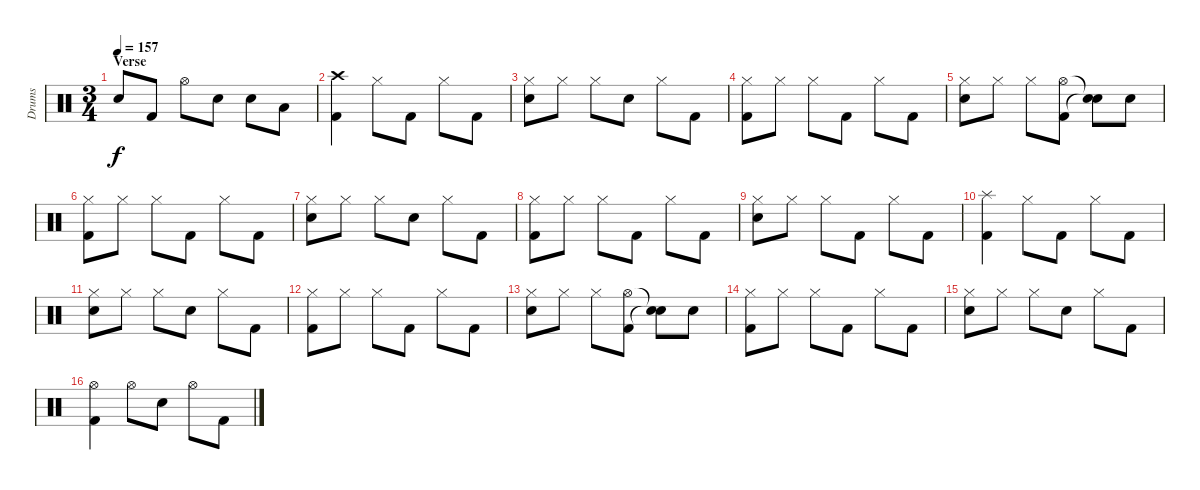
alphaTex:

\track ("Drums" "Drums") {instrument percussion}
\staff {score}
\articulation defaults
\ts (3 4)
\section ("" "Verse")
\tempo 157
\clef neutral
\ks c "Electric Snare (hit)".8{dy f} "Kick (hit) 2".8 "Hi-Hat (open)".8 "Electric Snare (hit)".8 "Electric Snare (hit)".8 "Low Tom (hit)".8
|
("Crash high (hit)" "Kick (hit) 2").4 "Hi-Hat (closed)".8 "Kick (hit) 2".8 "Hi-Hat (closed)".8 "Kick (hit) 2".8 |
("Hi-Hat (closed)" "Electric Snare (hit)").8 "Hi-Hat (closed)".8 "Hi-Hat (closed)".8 "Electric Snare (hit)".8 "Hi-Hat (closed)".8 "Kick (hit) 2".8 |
("Hi-Hat (closed)" "Kick (hit) 2").8 "Hi-Hat (closed)".8 "Hi-Hat (closed)".8 "Kick (hit) 2".8 "Hi-Hat (closed)".8 "Kick (hit) 2".8 |
("Hi-Hat (closed)" "Electric Snare (hit)").8 "Hi-Hat (closed)".8 "Hi-Hat (closed)".8 ("Hi-Hat (open)" "Kick (hit) 2").8 ("Snare (hit)"{t} "Snare (hit)"{t}).8 "Electric Snare (hit)".8 |
("Hi-Hat (closed)" "Kick (hit) 2").8 "Hi-Hat (closed)".8 "Hi-Hat (closed)".8 "Kick (hit) 2".8 "Hi-Hat (closed)".8 "Kick (hit) 2".8 |
("Hi-Hat (closed)" "Electric Snare (hit)").8 "Hi-Hat (closed)".8 "Hi-Hat (closed)".8 "Electric Snare (hit)".8 "Hi-Hat (closed)".8 "Kick (hit) 2".8 |
("Hi-Hat (closed)" "Kick (hit) 2").8 "Hi-Hat (closed)".8 "Hi-Hat (closed)".8 "Kick (hit) 2".8 "Hi-Hat (closed)".8 "Kick (hit) 2".8 |
("Hi-Hat (closed)" "Electric Snare (hit)").8 "Hi-Hat (closed)".8 "Hi-Hat (closed)".8 "Kick (hit) 2".8 "Hi-Hat (closed)".8 "Kick (hit) 2".8 |
("Splash (hit)" "Kick (hit) 2").4 "Hi-Hat (closed)".8 "Kick (hit) 2".8 "Hi-Hat (closed)".8 "Kick (hit) 2".8 |
("Hi-Hat (closed)" "Electric Snare (hit)").8 "Hi-Hat (closed)".8 "Hi-Hat (closed)".8 "Electric Snare (hit)".8 "Hi-Hat (closed)".8 "Kick (hit) 2".8 |
("Hi-Hat (closed)" "Kick (hit) 2").8 "Hi-Hat (closed)".8 "Hi-Hat (closed)".8 "Kick (hit) 2".8 "Hi-Hat (closed)".8 "Kick (hit) 2".8 |
("Hi-Hat (closed)" "Electric Snare (hit)").8 "Hi-Hat (closed)".8 "Hi-Hat (closed)".8 ("Hi-Hat (open)" "Kick (hit) 2").8 ("Snare (hit)"{t} "Snare (hit)"{t}).8 "Electric Snare (hit)".8 |
("Hi-Hat (closed)" "Kick (hit) 2").8 "Hi-Hat (closed)".8 "Hi-Hat (closed)".8 "Kick (hit) 2".8 "Hi-Hat (closed)".8 "Kick (hit) 2".8 |
("Hi-Hat (closed)" "Electric Snare (hit)").8 "Hi-Hat (closed)".8 "Hi-Hat (closed)".8 "Electric Snare (hit)".8 "Hi-Hat (closed)".8 "Kick (hit) 2".8 |
("Hi-Hat (open)" "Kick (hit) 2").4 "Hi-Hat (open)".8 "Electric Snare (hit)".8 "Hi-Hat (open)".8 "Kick (hit) 2".8
